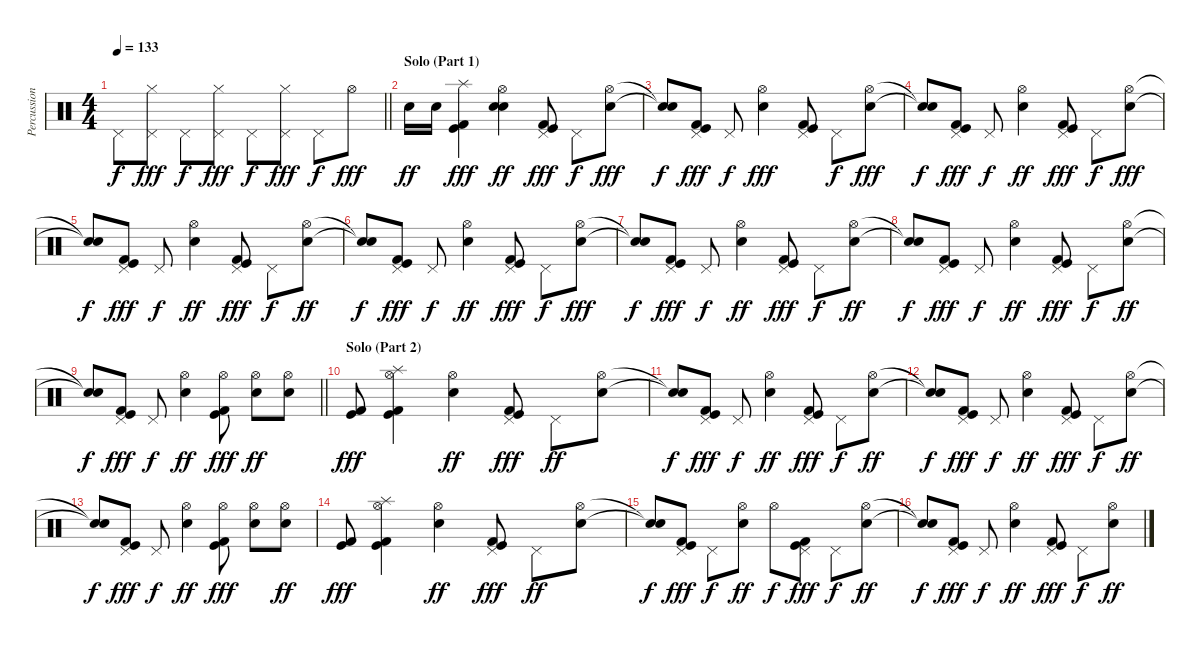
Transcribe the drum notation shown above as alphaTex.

\track ("Percussion" "Percussion") {instrument percussion}
\staff {score}
\articulation defaults
\ts (4 4)
\tempo 133
\clef neutral
\barLineRight lightlight
\ks c "Pedal Hi-Hat (hit)".8{dy f}
("Pedal Hi-Hat (hit)" "Hi-Hat (closed)").8{dy fff} "Pedal Hi-Hat (hit)".8{dy f} ("Pedal Hi-Hat (hit)" "Hi-Hat (closed)").8{dy fff} "Pedal Hi-Hat (hit)".8{dy f} ("Pedal Hi-Hat (hit)" "Hi-Hat (closed)").8{dy fff} "Pedal Hi-Hat (hit)".8{dy f} "Hi-Hat (open)".8{dy fff} |
\section ("" "Solo (Part 1)")
"Snare (hit) 2".16{dy ff} "Snare (hit) 2".16 ("Splash (hit)" "Kick (hit)" "Kick (hit) 2").4{dy fff} ("Hi-Hat (open)" "Snare (hit) 2" "Snare (hit) 2").4{dy ff} ("Pedal Hi-Hat (hit)" "Kick (hit)" "Kick (hit) 2").8{dy fff} "Pedal Hi-Hat (hit)".8{dy f} ("Hi-Hat (open)" "Snare (hit) 2").8{dy fff} |
("Snare (hit)"{t} "Snare (hit)"{t}).8{dy f} ("Pedal Hi-Hat (hit)" "Kick (hit)" "Kick (hit) 2").8{dy fff} "Pedal Hi-Hat (hit)".8{dy f} ("Hi-Hat (open)" "Snare (hit) 2").4{dy fff} ("Pedal Hi-Hat (hit)" "Kick (hit)" "Kick (hit) 2").8 "Pedal Hi-Hat (hit)".8{dy f} ("Hi-Hat (open)" "Snare (hit) 2").8{dy fff} |
("Snare (hit)"{t} "Snare (hit)"{t}).8{dy f} ("Pedal Hi-Hat (hit)" "Kick (hit)" "Kick (hit) 2").8{dy fff} "Pedal Hi-Hat (hit)".8{dy f} ("Hi-Hat (open)" "Snare (hit) 2").4{dy ff} ("Pedal Hi-Hat (hit)" "Kick (hit)" "Kick (hit) 2").8{dy fff} "Pedal Hi-Hat (hit)".8{dy f} ("Hi-Hat (open)" "Snare (hit) 2").8{dy fff} |
("Snare (hit)"{t} "Snare (hit)"{t}).8{dy f} ("Pedal Hi-Hat (hit)" "Kick (hit)" "Kick (hit) 2").8{dy fff} "Pedal Hi-Hat (hit)".8{dy f} ("Hi-Hat (open)" "Snare (hit) 2").4{dy ff} ("Pedal Hi-Hat (hit)" "Kick (hit)" "Kick (hit) 2").8{dy fff} "Pedal Hi-Hat (hit)".8{dy f} ("Hi-Hat (open)" "Snare (hit) 2").8{dy ff} |
("Snare (hit)"{t} "Snare (hit)"{t}).8{dy f} ("Pedal Hi-Hat (hit)" "Kick (hit)" "Kick (hit) 2").8{dy fff} "Pedal Hi-Hat (hit)".8{dy f} ("Hi-Hat (open)" "Snare (hit) 2").4{dy ff} ("Pedal Hi-Hat (hit)" "Kick (hit)" "Kick (hit) 2").8{dy fff} "Pedal Hi-Hat (hit)".8{dy f} ("Hi-Hat (open)" "Snare (hit) 2").8{dy fff} |
("Snare (hit)"{t} "Snare (hit)"{t}).8{dy f} ("Pedal Hi-Hat (hit)" "Kick (hit)" "Kick (hit) 2").8{dy fff} "Pedal Hi-Hat (hit)".8{dy f} ("Hi-Hat (open)" "Snare (hit) 2").4{dy ff} ("Pedal Hi-Hat (hit)" "Kick (hit)" "Kick (hit) 2").8{dy fff} "Pedal Hi-Hat (hit)".8{dy f} ("Hi-Hat (open)" "Snare (hit) 2").8{dy ff} |
("Snare (hit)"{t} "Snare (hit)"{t}).8{dy f} ("Pedal Hi-Hat (hit)" "Kick (hit)" "Kick (hit) 2").8{dy fff} "Pedal Hi-Hat (hit)".8{dy f} ("Hi-Hat (open)" "Snare (hit) 2").4{dy ff} ("Pedal Hi-Hat (hit)" "Kick (hit)" "Kick (hit) 2").8{dy fff} "Pedal Hi-Hat (hit)".8{dy f} ("Hi-Hat (open)" "Snare (hit) 2").8{dy ff} |
\barLineRight lightlight
("Snare (hit)"{t} "Snare (hit)"{t}).8{dy f} ("Pedal Hi-Hat (hit)" "Kick (hit)" "Kick (hit) 2").8{dy fff} "Pedal Hi-Hat (hit)".8{dy f} ("Hi-Hat (open)" "Snare (hit) 2").4{dy ff} ("Hi-Hat (open)" "Kick (hit)" "Kick (hit) 2").8{dy fff} ("Hi-Hat (open)" "Snare (hit) 2").8{dy ff} ("Hi-Hat (open)" "Snare (hit) 2").8 |
\section ("" "Solo (Part 2)")
("Kick (hit)" "Kick (hit) 2").8{dy fff} ("Splash (hit)" "Hi-Hat (open)" "Kick (hit)" "Kick (hit) 2").4 ("Hi-Hat (open)" "Snare (hit) 2").4{dy ff} ("Pedal Hi-Hat (hit)" "Kick (hit)" "Kick (hit) 2").8{dy fff} "Pedal Hi-Hat (hit)".8{dy ff} ("Hi-Hat (open)" "Snare (hit) 2").8 |
("Snare (hit)"{t} "Snare (hit)"{t}).8{dy f} ("Pedal Hi-Hat (hit)" "Kick (hit)" "Kick (hit) 2").8{dy fff} "Pedal Hi-Hat (hit)".8{dy f} ("Hi-Hat (open)" "Snare (hit) 2").4{dy ff} ("Pedal Hi-Hat (hit)" "Kick (hit)" "Kick (hit) 2").8{dy fff} "Pedal Hi-Hat (hit)".8{dy f} ("Hi-Hat (open)" "Snare (hit) 2").8{dy ff} |
("Snare (hit)"{t} "Snare (hit)"{t}).8{dy f} ("Pedal Hi-Hat (hit)" "Kick (hit)" "Kick (hit) 2").8{dy fff} "Pedal Hi-Hat (hit)".8{dy f} ("Hi-Hat (open)" "Snare (hit) 2").4{dy ff} ("Pedal Hi-Hat (hit)" "Kick (hit)" "Kick (hit) 2").8{dy fff} "Pedal Hi-Hat (hit)".8{dy f} ("Hi-Hat (open)" "Snare (hit) 2").8{dy ff} |
("Snare (hit)"{t} "Snare (hit)"{t}).8{dy f} ("Pedal Hi-Hat (hit)" "Kick (hit)" "Kick (hit) 2").8{dy fff} "Pedal Hi-Hat (hit)".8{dy f} ("Hi-Hat (open)" "Snare (hit) 2").4{dy ff} ("Hi-Hat (open)" "Kick (hit)" "Kick (hit) 2").8{dy fff} ("Hi-Hat (open)" "Snare (hit) 2").8 ("Hi-Hat (open)" "Snare (hit) 2").8{dy ff} |
("Kick (hit)" "Kick (hit) 2").8{dy fff} ("Splash (hit)" "Hi-Hat (open)" "Kick (hit)" "Kick (hit) 2").4 ("Hi-Hat (open)" "Snare (hit) 2").4{dy ff} ("Pedal Hi-Hat (hit)" "Kick (hit)" "Kick (hit) 2").8{dy fff} "Pedal Hi-Hat (hit)".8{dy ff} ("Hi-Hat (open)" "Snare (hit) 2").8 |
("Snare (hit)"{t} "Snare (hit)"{t}).8{dy f} ("Pedal Hi-Hat (hit)" "Kick (hit)" "Kick (hit) 2").8{dy fff} "Pedal Hi-Hat (hit)".8{dy f} ("Hi-Hat (open)" "Snare (hit) 2").8{dy ff} "Hi-Hat (open)".8{dy f} ("Pedal Hi-Hat (hit)" "Kick (hit)" "Kick (hit) 2").8{dy fff} "Pedal Hi-Hat (hit)".8{dy f} ("Hi-Hat (open)" "Snare (hit) 2").8{dy ff} |
("Snare (hit)"{t} "Snare (hit)"{t}).8{dy f} ("Pedal Hi-Hat (hit)" "Kick (hit)" "Kick (hit) 2").8{dy fff} "Pedal Hi-Hat (hit)".8{dy f} ("Hi-Hat (open)" "Snare (hit) 2").4{dy ff} ("Pedal Hi-Hat (hit)" "Kick (hit)" "Kick (hit) 2").8{dy fff} "Pedal Hi-Hat (hit)".8{dy f} ("Hi-Hat (open)" "Snare (hit) 2").8{dy ff}
